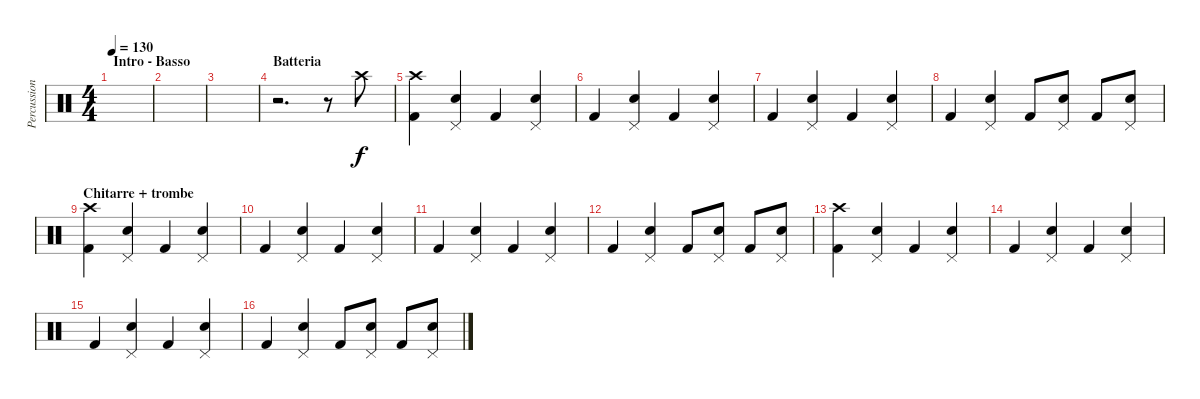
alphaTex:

\track ("Percussioni" "Percussion") {instrument percussion}
\staff {score}
\articulation defaults
\ts (4 4)
\section ("" "Intro - Basso")
\tempo 130
\clef neutral
\ks c
|
|
|
\section ("" "Batteria")
r.2{d} r.8 "Crash high (hit)".8 |
("Crash high (hit)" "Kick (hit) 2").4 ("Pedal Hi-Hat (hit)" "Snare (hit) 2").4 "Kick (hit) 2".4 ("Pedal Hi-Hat (hit)" "Snare (hit) 2").4 |
"Kick (hit) 2".4 ("Pedal Hi-Hat (hit)" "Snare (hit) 2").4 "Kick (hit) 2".4 ("Pedal Hi-Hat (hit)" "Snare (hit) 2").4 |
"Kick (hit) 2".4 ("Pedal Hi-Hat (hit)" "Snare (hit) 2").4 "Kick (hit) 2".4 ("Pedal Hi-Hat (hit)" "Snare (hit) 2").4 |
"Kick (hit) 2".4 ("Pedal Hi-Hat (hit)" "Snare (hit) 2").4 "Kick (hit) 2".8 ("Pedal Hi-Hat (hit)" "Snare (hit) 2").8 "Kick (hit) 2".8 ("Pedal Hi-Hat (hit)" "Snare (hit) 2").8 |
\section ("" "Chitarre + trombe")
("Crash high (hit)" "Kick (hit) 2").4 ("Pedal Hi-Hat (hit)" "Snare (hit) 2").4 "Kick (hit) 2".4 ("Pedal Hi-Hat (hit)" "Snare (hit) 2").4 |
"Kick (hit) 2".4 ("Pedal Hi-Hat (hit)" "Snare (hit) 2").4 "Kick (hit) 2".4 ("Pedal Hi-Hat (hit)" "Snare (hit) 2").4 |
"Kick (hit) 2".4 ("Pedal Hi-Hat (hit)" "Snare (hit) 2").4 "Kick (hit) 2".4 ("Pedal Hi-Hat (hit)" "Snare (hit) 2").4 |
"Kick (hit) 2".4 ("Pedal Hi-Hat (hit)" "Snare (hit) 2").4 "Kick (hit) 2".8 ("Pedal Hi-Hat (hit)" "Snare (hit) 2").8 "Kick (hit) 2".8 ("Pedal Hi-Hat (hit)" "Snare (hit) 2").8 |
("Crash high (hit)" "Kick (hit) 2").4 ("Pedal Hi-Hat (hit)" "Snare (hit) 2").4 "Kick (hit) 2".4 ("Pedal Hi-Hat (hit)" "Snare (hit) 2").4 |
"Kick (hit) 2".4 ("Pedal Hi-Hat (hit)" "Snare (hit) 2").4 "Kick (hit) 2".4 ("Pedal Hi-Hat (hit)" "Snare (hit) 2").4 |
"Kick (hit) 2".4 ("Pedal Hi-Hat (hit)" "Snare (hit) 2").4 "Kick (hit) 2".4 ("Pedal Hi-Hat (hit)" "Snare (hit) 2").4 |
"Kick (hit) 2".4 ("Pedal Hi-Hat (hit)" "Snare (hit) 2").4 "Kick (hit) 2".8 ("Pedal Hi-Hat (hit)" "Snare (hit) 2").8 "Kick (hit) 2".8 ("Pedal Hi-Hat (hit)" "Snare (hit) 2").8
